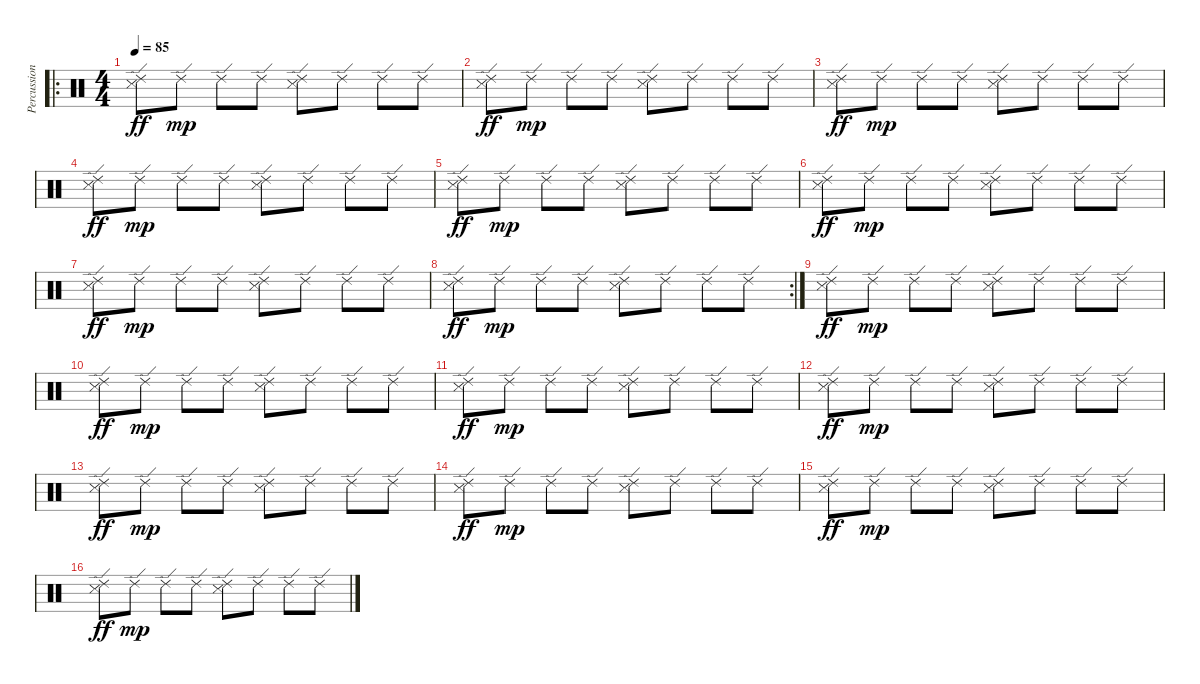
\track ("Percussions (Moe Tucker)" "Percussion") {instrument percussion}
\staff {score}
\articulation defaults
\ro
\ts (4 4)
\tempo 85
\clef neutral
\ks c
("Ride (edge) 2" "Snare (side stick) 3").8{dy ff} "Ride (edge) 2".8{dy mp} "Ride (edge) 2".8 "Ride (edge) 2".8 ("Ride (edge) 2" "Snare (side stick) 3").8 "Ride (edge) 2".8 "Ride (edge) 2".8 "Ride (edge) 2".8 |
("Ride (edge) 2" "Snare (side stick) 3").8{dy ff} "Ride (edge) 2".8{dy mp} "Ride (edge) 2".8 "Ride (edge) 2".8 ("Ride (edge) 2" "Snare (side stick) 3").8 "Ride (edge) 2".8 "Ride (edge) 2".8 "Ride (edge) 2".8 |
("Ride (edge) 2" "Snare (side stick) 3").8{dy ff} "Ride (edge) 2".8{dy mp} "Ride (edge) 2".8 "Ride (edge) 2".8 ("Ride (edge) 2" "Snare (side stick) 3").8 "Ride (edge) 2".8 "Ride (edge) 2".8 "Ride (edge) 2".8 |
("Ride (edge) 2" "Snare (side stick) 3").8{dy ff} "Ride (edge) 2".8{dy mp} "Ride (edge) 2".8 "Ride (edge) 2".8 ("Ride (edge) 2" "Snare (side stick) 3").8 "Ride (edge) 2".8 "Ride (edge) 2".8 "Ride (edge) 2".8 |
("Ride (edge) 2" "Snare (side stick) 3").8{dy ff} "Ride (edge) 2".8{dy mp} "Ride (edge) 2".8 "Ride (edge) 2".8 ("Ride (edge) 2" "Snare (side stick) 3").8 "Ride (edge) 2".8 "Ride (edge) 2".8 "Ride (edge) 2".8 |
("Ride (edge) 2" "Snare (side stick) 3").8{dy ff} "Ride (edge) 2".8{dy mp} "Ride (edge) 2".8 "Ride (edge) 2".8 ("Ride (edge) 2" "Snare (side stick) 3").8 "Ride (edge) 2".8 "Ride (edge) 2".8 "Ride (edge) 2".8 |
("Ride (edge) 2" "Snare (side stick) 3").8{dy ff} "Ride (edge) 2".8{dy mp} "Ride (edge) 2".8 "Ride (edge) 2".8 ("Ride (edge) 2" "Snare (side stick) 3").8 "Ride (edge) 2".8 "Ride (edge) 2".8 "Ride (edge) 2".8 |
\rc 2
("Ride (edge) 2" "Snare (side stick) 3").8{dy ff} "Ride (edge) 2".8{dy mp} "Ride (edge) 2".8 "Ride (edge) 2".8 ("Ride (edge) 2" "Snare (side stick) 3").8 "Ride (edge) 2".8 "Ride (edge) 2".8 "Ride (edge) 2".8 |
("Ride (edge) 2" "Snare (side stick) 3").8{dy ff} "Ride (edge) 2".8{dy mp} "Ride (edge) 2".8 "Ride (edge) 2".8 ("Ride (edge) 2" "Snare (side stick) 3").8 "Ride (edge) 2".8 "Ride (edge) 2".8 "Ride (edge) 2".8 |
("Ride (edge) 2" "Snare (side stick) 3").8{dy ff} "Ride (edge) 2".8{dy mp} "Ride (edge) 2".8 "Ride (edge) 2".8 ("Ride (edge) 2" "Snare (side stick) 3").8 "Ride (edge) 2".8 "Ride (edge) 2".8 "Ride (edge) 2".8 |
("Ride (edge) 2" "Snare (side stick) 3").8{dy ff} "Ride (edge) 2".8{dy mp} "Ride (edge) 2".8 "Ride (edge) 2".8 ("Ride (edge) 2" "Snare (side stick) 3").8 "Ride (edge) 2".8 "Ride (edge) 2".8 "Ride (edge) 2".8 |
("Ride (edge) 2" "Snare (side stick) 3").8{dy ff} "Ride (edge) 2".8{dy mp} "Ride (edge) 2".8 "Ride (edge) 2".8 ("Ride (edge) 2" "Snare (side stick) 3").8 "Ride (edge) 2".8 "Ride (edge) 2".8 "Ride (edge) 2".8 |
("Ride (edge) 2" "Snare (side stick) 3").8{dy ff} "Ride (edge) 2".8{dy mp} "Ride (edge) 2".8 "Ride (edge) 2".8 ("Ride (edge) 2" "Snare (side stick) 3").8 "Ride (edge) 2".8 "Ride (edge) 2".8 "Ride (edge) 2".8 |
("Ride (edge) 2" "Snare (side stick) 3").8{dy ff} "Ride (edge) 2".8{dy mp} "Ride (edge) 2".8 "Ride (edge) 2".8 ("Ride (edge) 2" "Snare (side stick) 3").8 "Ride (edge) 2".8 "Ride (edge) 2".8 "Ride (edge) 2".8 |
("Ride (edge) 2" "Snare (side stick) 3").8{dy ff} "Ride (edge) 2".8{dy mp} "Ride (edge) 2".8 "Ride (edge) 2".8 ("Ride (edge) 2" "Snare (side stick) 3").8 "Ride (edge) 2".8 "Ride (edge) 2".8 "Ride (edge) 2".8 |
("Ride (edge) 2" "Snare (side stick) 3").8{dy ff} "Ride (edge) 2".8{dy mp} "Ride (edge) 2".8 "Ride (edge) 2".8 ("Ride (edge) 2" "Snare (side stick) 3").8 "Ride (edge) 2".8 "Ride (edge) 2".8 "Ride (edge) 2".8
